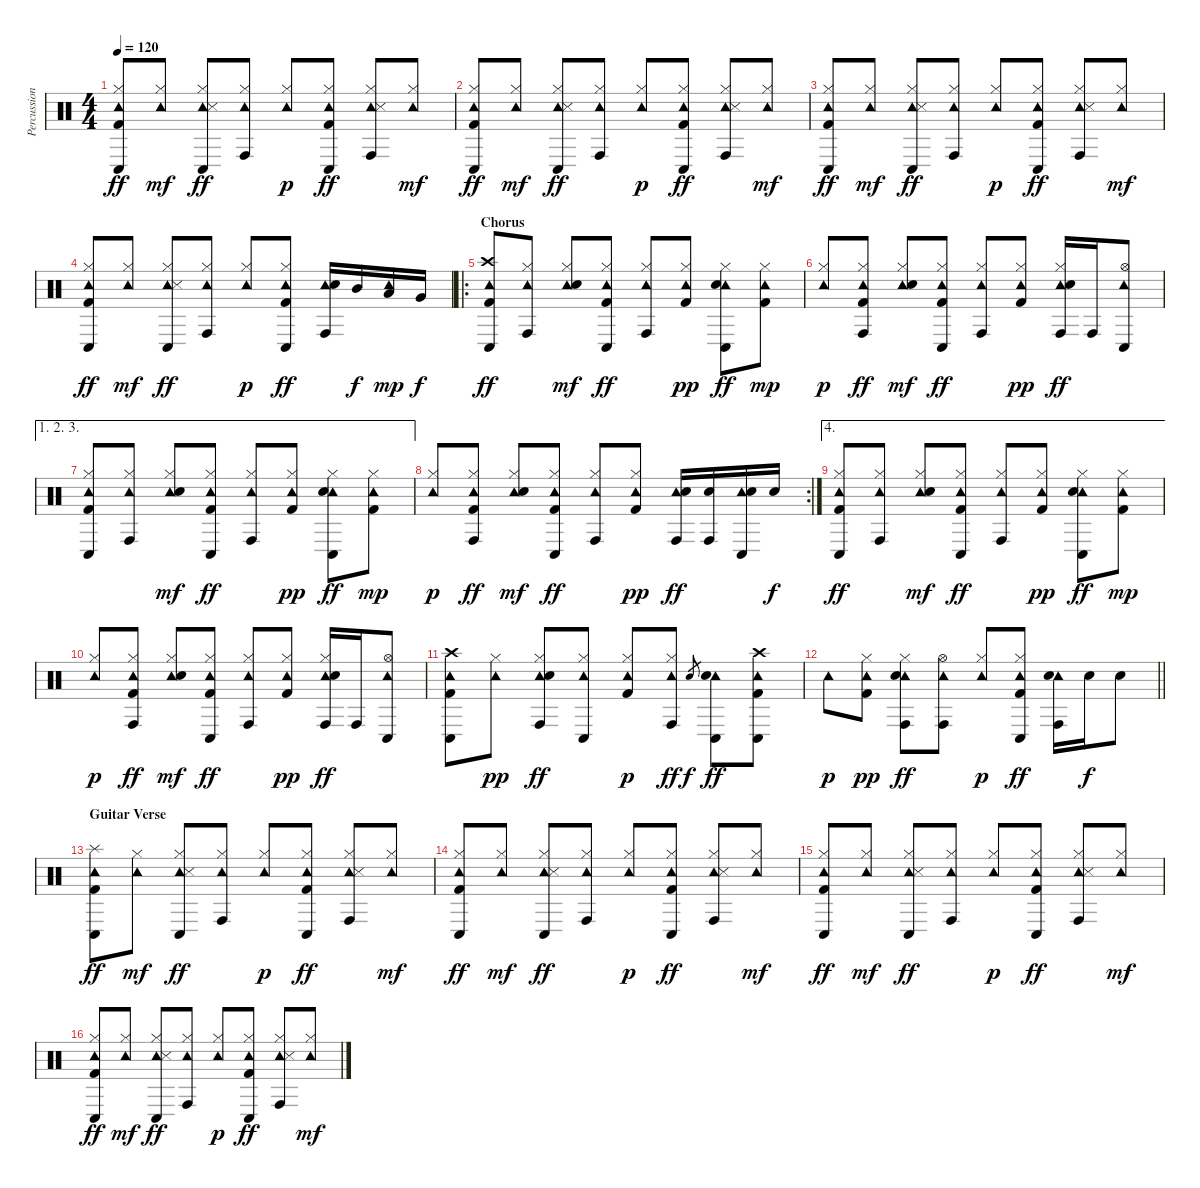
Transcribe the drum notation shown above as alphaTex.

\track ("Percussion" "Percussion") {instrument percussion}
\staff {score}
\articulation defaults
\ts (4 4)
\tempo 120
\clef neutral
\ks c
("Kick (hit) 2" "Tambourine (hit)" "Hi-Hat (closed)" "Conga low (hit)").8{dy ff} ("Tambourine (hit)" "Hi-Hat (closed)").8{dy mf} ("Tambourine (hit)" "Snare (side stick) 3" "Hi-Hat (closed)" "Conga low (hit)").8{dy ff} ("Tambourine (hit)" "Hi-Hat (closed)" "Conga high (hit)").8 ("Tambourine (hit)" "Hi-Hat (closed)").8{dy p} ("Kick (hit) 2" "Tambourine (hit)" "Hi-Hat (closed)" "Conga low (hit)").8{dy ff} ("Tambourine (hit)" "Snare (side stick) 3" "Hi-Hat (closed)" "Conga high (hit)").8 ("Tambourine (hit)" "Hi-Hat (closed)").8{dy mf} |
("Kick (hit) 2" "Tambourine (hit)" "Hi-Hat (closed)" "Conga low (hit)").8{dy ff} ("Tambourine (hit)" "Hi-Hat (closed)").8{dy mf} ("Tambourine (hit)" "Snare (side stick) 3" "Hi-Hat (closed)" "Conga low (hit)").8{dy ff} ("Tambourine (hit)" "Hi-Hat (closed)" "Conga high (hit)").8 ("Tambourine (hit)" "Hi-Hat (closed)").8{dy p} ("Kick (hit) 2" "Tambourine (hit)" "Hi-Hat (closed)" "Conga low (hit)").8{dy ff} ("Tambourine (hit)" "Snare (side stick) 3" "Hi-Hat (closed)" "Conga high (hit)").8 ("Tambourine (hit)" "Hi-Hat (closed)").8{dy mf} |
("Kick (hit) 2" "Tambourine (hit)" "Hi-Hat (closed)" "Conga low (hit)").8{dy ff} ("Tambourine (hit)" "Hi-Hat (closed)").8{dy mf} ("Tambourine (hit)" "Snare (side stick) 3" "Hi-Hat (closed)" "Conga low (hit)").8{dy ff} ("Tambourine (hit)" "Hi-Hat (closed)" "Conga high (hit)").8 ("Tambourine (hit)" "Hi-Hat (closed)").8{dy p} ("Kick (hit) 2" "Tambourine (hit)" "Hi-Hat (closed)" "Conga low (hit)").8{dy ff} ("Tambourine (hit)" "Snare (side stick) 3" "Hi-Hat (closed)" "Conga high (hit)").8 ("Tambourine (hit)" "Hi-Hat (closed)").8{dy mf} |
("Kick (hit) 2" "Tambourine (hit)" "Hi-Hat (closed)" "Conga low (hit)").8{dy ff} ("Tambourine (hit)" "Hi-Hat (closed)").8{dy mf} ("Tambourine (hit)" "Snare (side stick) 3" "Hi-Hat (closed)" "Conga low (hit)").8{dy ff} ("Tambourine (hit)" "Hi-Hat (closed)" "Conga high (hit)").8 ("Tambourine (hit)" "Hi-Hat (closed)").8{dy p} ("Kick (hit) 2" "Tambourine (hit)" "Hi-Hat (closed)" "Conga low (hit)").8{dy ff} ("Tambourine (hit)" "Snare (hit) 2" "Conga high (hit)").16 "Mid Tom (hit)".16{dy f} ("Tambourine (hit)" "Low Tom (hit)").16{dy mp} "Very Low Tom (hit)".16{dy f} |
\ro
\section ("" "Chorus")
("Kick (hit) 2" "Crash high (hit)" "Tambourine (hit)" "Conga low (hit)").8{dy ff} ("Tambourine (hit)" "Hi-Hat (closed)" "Conga high (hit)").8 ("Tambourine (hit)" "Snare (hit) 2" "Hi-Hat (closed)").8{dy mf} ("Kick (hit) 2" "Tambourine (hit)" "Hi-Hat (closed)" "Conga low (hit)").8{dy ff} ("Tambourine (hit)" "Hi-Hat (closed)" "Conga high (hit)").8 ("Kick (hit) 2" "Tambourine (hit)" "Hi-Hat (closed)").8{dy pp} ("Tambourine (hit)" "Snare (hit) 2" "Hi-Hat (closed)" "Conga low (hit)").8{dy ff} ("Kick (hit) 2" "Tambourine (hit)" "Hi-Hat (closed)").8{dy mp} |
("Tambourine (hit)" "Hi-Hat (closed)").8{dy p} ("Kick (hit) 2" "Tambourine (hit)" "Hi-Hat (closed)" "Conga high (hit)").8{dy ff} ("Tambourine (hit)" "Snare (hit) 2" "Hi-Hat (closed)").8{dy mf} ("Kick (hit) 2" "Tambourine (hit)" "Hi-Hat (closed)" "Conga low (hit)").8{dy ff} ("Tambourine (hit)" "Hi-Hat (closed)" "Conga high (hit)").8 ("Kick (hit) 2" "Tambourine (hit)" "Hi-Hat (closed)").8{dy pp} ("Tambourine (hit)" "Snare (hit) 2" "Hi-Hat (closed)" "Conga high (hit)").16{dy ff} "Conga high (hit)".16 ("Tambourine (hit)" "Hi-Hat (open)" "Conga low (hit)").8 |
\ae (1 2 3)
("Kick (hit) 2" "Tambourine (hit)" "Hi-Hat (closed)" "Conga low (hit)").8 ("Tambourine (hit)" "Hi-Hat (closed)" "Conga high (hit)").8 ("Tambourine (hit)" "Snare (hit) 2" "Hi-Hat (closed)").8{dy mf} ("Kick (hit) 2" "Tambourine (hit)" "Hi-Hat (closed)" "Conga low (hit)").8{dy ff} ("Tambourine (hit)" "Hi-Hat (closed)" "Conga high (hit)").8 ("Kick (hit) 2" "Tambourine (hit)" "Hi-Hat (closed)").8{dy pp} ("Tambourine (hit)" "Snare (hit) 2" "Hi-Hat (closed)" "Conga low (hit)").8{dy ff} ("Kick (hit) 2" "Tambourine (hit)" "Hi-Hat (closed)").8{dy mp} |
\rc 2
("Tambourine (hit)" "Hi-Hat (closed)").8{dy p} ("Kick (hit) 2" "Tambourine (hit)" "Hi-Hat (closed)" "Conga high (hit)").8{dy ff} ("Tambourine (hit)" "Snare (hit) 2" "Hi-Hat (closed)").8{dy mf} ("Kick (hit) 2" "Tambourine (hit)" "Hi-Hat (closed)" "Conga low (hit)").8{dy ff} ("Tambourine (hit)" "Hi-Hat (closed)" "Conga high (hit)").8 ("Kick (hit) 2" "Tambourine (hit)" "Hi-Hat (closed)").8{dy pp} ("Tambourine (hit)" "Snare (hit) 2" "Conga high (hit)").16{dy ff} ("Snare (hit) 2" "Conga high (hit)").16 ("Tambourine (hit)" "Snare (hit) 2" "Conga low (hit)").16 "Snare (hit) 2".16{dy f} |
\ae 4
("Kick (hit) 2" "Tambourine (hit)" "Hi-Hat (closed)" "Conga low (hit)").8{dy ff} ("Tambourine (hit)" "Hi-Hat (closed)" "Conga high (hit)").8 ("Tambourine (hit)" "Snare (hit) 2" "Hi-Hat (closed)").8{dy mf} ("Kick (hit) 2" "Tambourine (hit)" "Hi-Hat (closed)" "Conga low (hit)").8{dy ff} ("Tambourine (hit)" "Hi-Hat (closed)" "Conga high (hit)").8 ("Kick (hit) 2" "Tambourine (hit)" "Hi-Hat (closed)").8{dy pp} ("Tambourine (hit)" "Snare (hit) 2" "Hi-Hat (closed)" "Conga low (hit)").8{dy ff} ("Kick (hit) 2" "Tambourine (hit)" "Hi-Hat (closed)").8{dy mp} |
("Tambourine (hit)" "Hi-Hat (closed)").8{dy p} ("Kick (hit) 2" "Tambourine (hit)" "Hi-Hat (closed)" "Conga high (hit)").8{dy ff} ("Tambourine (hit)" "Snare (hit) 2" "Hi-Hat (closed)").8{dy mf} ("Kick (hit) 2" "Tambourine (hit)" "Hi-Hat (closed)" "Conga low (hit)").8{dy ff} ("Tambourine (hit)" "Hi-Hat (closed)" "Conga high (hit)").8 ("Kick (hit) 2" "Tambourine (hit)" "Hi-Hat (closed)").8{dy pp} ("Tambourine (hit)" "Snare (hit) 2" "Hi-Hat (closed)" "Conga high (hit)").16{dy ff} "Conga high (hit)".16 ("Tambourine (hit)" "Hi-Hat (open)" "Conga low (hit)").8 |
("Kick (hit) 2" "Crash high (hit)" "Tambourine (hit)" "Conga low (hit)").8 ("Tambourine (hit)" "Hi-Hat (closed)").8{dy pp} ("Tambourine (hit)" "Snare (hit) 2" "Hi-Hat (closed)" "Conga high (hit)").8{dy ff} ("Tambourine (hit)" "Hi-Hat (closed)" "Conga low (hit)").8 ("Kick (hit) 2" "Tambourine (hit)" "Hi-Hat (closed)").8{dy p} ("Tambourine (hit)" "Hi-Hat (closed)" "Conga high (hit)").8{dy ff} "Snare (hit) 2".8{gr dy f} ("Tambourine (hit)" "Snare (hit) 2" "Conga low (hit)").8{dy ff} ("Kick (hit) 2" "Crash high (hit)" "Tambourine (hit)" "Conga low (hit)").8 |
\barLineRight lightlight "Tambourine (hit)".8{dy p}
("Kick (hit) 2" "Tambourine (hit)" "Hi-Hat (closed)").8{dy pp} ("Tambourine (hit)" "Snare (hit) 2" "Hi-Hat (closed)" "Conga high (hit)").8{dy ff} ("Tambourine (hit)" "Hi-Hat (open)" "Conga high (hit)").8 ("Tambourine (hit)" "Hi-Hat (closed)").8{dy p} ("Kick (hit) 2" "Tambourine (hit)" "Hi-Hat (closed)" "Conga low (hit)").8{dy ff} ("Tambourine (hit)" "Snare (hit) 2" "Conga high (hit)").16 "Snare (hit) 2".16{dy f} "Snare (hit) 2".8 |
\section ("" "Guitar Verse")
("Kick (hit) 2" "Splash (hit)" "Tambourine (hit)" "Conga low (hit)").8{dy ff} ("Tambourine (hit)" "Hi-Hat (closed)").8{dy mf} ("Tambourine (hit)" "Snare (side stick) 3" "Hi-Hat (closed)" "Conga low (hit)").8{dy ff} ("Tambourine (hit)" "Hi-Hat (closed)" "Conga high (hit)").8 ("Tambourine (hit)" "Hi-Hat (closed)").8{dy p} ("Kick (hit) 2" "Tambourine (hit)" "Hi-Hat (closed)" "Conga low (hit)").8{dy ff} ("Tambourine (hit)" "Snare (side stick) 3" "Hi-Hat (closed)" "Conga high (hit)").8 ("Tambourine (hit)" "Hi-Hat (closed)").8{dy mf} |
("Kick (hit) 2" "Tambourine (hit)" "Hi-Hat (closed)" "Conga low (hit)").8{dy ff} ("Tambourine (hit)" "Hi-Hat (closed)").8{dy mf} ("Tambourine (hit)" "Snare (side stick) 3" "Hi-Hat (closed)" "Conga low (hit)").8{dy ff} ("Tambourine (hit)" "Hi-Hat (closed)" "Conga high (hit)").8 ("Tambourine (hit)" "Hi-Hat (closed)").8{dy p} ("Kick (hit) 2" "Tambourine (hit)" "Hi-Hat (closed)" "Conga low (hit)").8{dy ff} ("Tambourine (hit)" "Snare (side stick) 3" "Hi-Hat (closed)" "Conga high (hit)").8 ("Tambourine (hit)" "Hi-Hat (closed)").8{dy mf} |
("Kick (hit) 2" "Tambourine (hit)" "Hi-Hat (closed)" "Conga low (hit)").8{dy ff} ("Tambourine (hit)" "Hi-Hat (closed)").8{dy mf} ("Tambourine (hit)" "Snare (side stick) 3" "Hi-Hat (closed)" "Conga low (hit)").8{dy ff} ("Tambourine (hit)" "Hi-Hat (closed)" "Conga high (hit)").8 ("Tambourine (hit)" "Hi-Hat (closed)").8{dy p} ("Kick (hit) 2" "Tambourine (hit)" "Hi-Hat (closed)" "Conga low (hit)").8{dy ff} ("Tambourine (hit)" "Snare (side stick) 3" "Hi-Hat (closed)" "Conga high (hit)").8 ("Tambourine (hit)" "Hi-Hat (closed)").8{dy mf} |
("Kick (hit) 2" "Tambourine (hit)" "Hi-Hat (closed)" "Conga low (hit)").8{dy ff} ("Tambourine (hit)" "Hi-Hat (closed)").8{dy mf} ("Tambourine (hit)" "Snare (side stick) 3" "Hi-Hat (closed)" "Conga low (hit)").8{dy ff} ("Tambourine (hit)" "Hi-Hat (closed)" "Conga high (hit)").8 ("Tambourine (hit)" "Hi-Hat (closed)").8{dy p} ("Kick (hit) 2" "Tambourine (hit)" "Hi-Hat (closed)" "Conga low (hit)").8{dy ff} ("Tambourine (hit)" "Snare (side stick) 3" "Hi-Hat (closed)" "Conga high (hit)").8 ("Tambourine (hit)" "Hi-Hat (closed)").8{dy mf}
